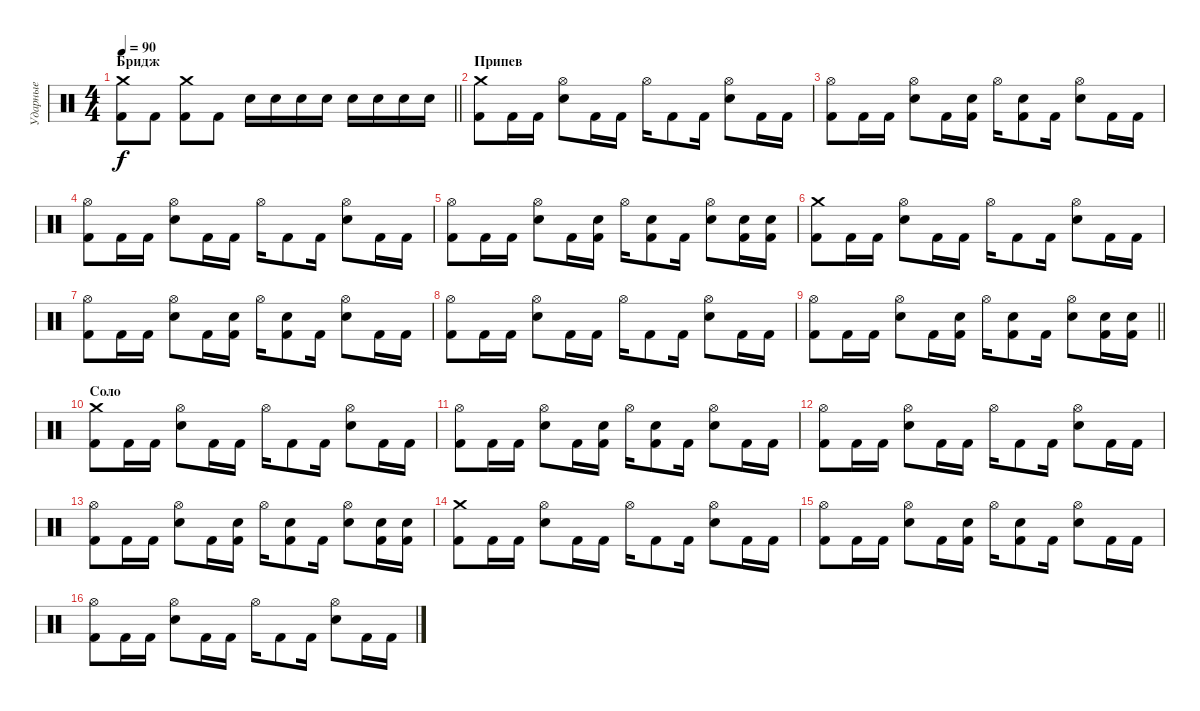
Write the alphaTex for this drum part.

\track ("Ударные" "Ударные") {instrument percussion}
\staff {score}
\articulation defaults
\ts (4 4)
\section ("" "Бридж")
\tempo 90
\clef neutral
\barLineRight lightlight
\ks c
("Kick (hit) 2" "Crash medium (hit)").8{dy f} "Kick (hit) 2".8 ("Kick (hit) 2" "Crash medium (hit)").8 "Kick (hit) 2".8 "Electric Snare (hit)".16 "Electric Snare (hit)".16 "Electric Snare (hit)".16 "Electric Snare (hit)".16 "Electric Snare (hit)".16 "Electric Snare (hit)".16 "Electric Snare (hit)".16 "Electric Snare (hit)".16 |
\section ("" "Припев")
("Kick (hit) 2" "Crash medium (hit)").8 "Kick (hit) 2".16 "Kick (hit) 2".16 ("Electric Snare (hit)" "Hi-Hat (open)").8 "Kick (hit) 2".16 "Kick (hit) 2".16 "Hi-Hat (open)".16 "Kick (hit) 2".8 "Kick (hit) 2".16 ("Electric Snare (hit)" "Hi-Hat (open)").8 "Kick (hit) 2".16 "Kick (hit) 2".16 |
("Kick (hit) 2" "Hi-Hat (open)").8 "Kick (hit) 2".16 "Kick (hit) 2".16 ("Electric Snare (hit)" "Hi-Hat (open)").8 "Kick (hit) 2".16 ("Kick (hit) 2" "Electric Snare (hit)").16 "Hi-Hat (open)".16 ("Kick (hit) 2" "Electric Snare (hit)").8 "Kick (hit) 2".16 ("Electric Snare (hit)" "Hi-Hat (open)").8 "Kick (hit) 2".16 "Kick (hit) 2".16 |
("Kick (hit) 2" "Hi-Hat (open)").8 "Kick (hit) 2".16 "Kick (hit) 2".16 ("Electric Snare (hit)" "Hi-Hat (open)").8 "Kick (hit) 2".16 "Kick (hit) 2".16 "Hi-Hat (open)".16 "Kick (hit) 2".8 "Kick (hit) 2".16 ("Electric Snare (hit)" "Hi-Hat (open)").8 "Kick (hit) 2".16 "Kick (hit) 2".16 |
("Kick (hit) 2" "Hi-Hat (open)").8 "Kick (hit) 2".16 "Kick (hit) 2".16 ("Electric Snare (hit)" "Hi-Hat (open)").8 "Kick (hit) 2".16 ("Kick (hit) 2" "Electric Snare (hit)").16 "Hi-Hat (open)".16 ("Kick (hit) 2" "Electric Snare (hit)").8 "Kick (hit) 2".16 ("Electric Snare (hit)" "Hi-Hat (open)").8 ("Kick (hit) 2" "Electric Snare (hit)").16 ("Kick (hit) 2" "Electric Snare (hit)").16 |
("Kick (hit) 2" "Crash medium (hit)").8 "Kick (hit) 2".16 "Kick (hit) 2".16 ("Electric Snare (hit)" "Hi-Hat (open)").8 "Kick (hit) 2".16 "Kick (hit) 2".16 "Hi-Hat (open)".16 "Kick (hit) 2".8 "Kick (hit) 2".16 ("Electric Snare (hit)" "Hi-Hat (open)").8 "Kick (hit) 2".16 "Kick (hit) 2".16 |
("Kick (hit) 2" "Hi-Hat (open)").8 "Kick (hit) 2".16 "Kick (hit) 2".16 ("Electric Snare (hit)" "Hi-Hat (open)").8 "Kick (hit) 2".16 ("Kick (hit) 2" "Electric Snare (hit)").16 "Hi-Hat (open)".16 ("Kick (hit) 2" "Electric Snare (hit)").8 "Kick (hit) 2".16 ("Electric Snare (hit)" "Hi-Hat (open)").8 "Kick (hit) 2".16 "Kick (hit) 2".16 |
("Kick (hit) 2" "Hi-Hat (open)").8 "Kick (hit) 2".16 "Kick (hit) 2".16 ("Electric Snare (hit)" "Hi-Hat (open)").8 "Kick (hit) 2".16 "Kick (hit) 2".16 "Hi-Hat (open)".16 "Kick (hit) 2".8 "Kick (hit) 2".16 ("Electric Snare (hit)" "Hi-Hat (open)").8 "Kick (hit) 2".16 "Kick (hit) 2".16 |
\barLineRight lightlight
("Kick (hit) 2" "Hi-Hat (open)").8 "Kick (hit) 2".16 "Kick (hit) 2".16 ("Electric Snare (hit)" "Hi-Hat (open)").8 "Kick (hit) 2".16 ("Kick (hit) 2" "Electric Snare (hit)").16 "Hi-Hat (open)".16 ("Kick (hit) 2" "Electric Snare (hit)").8 "Kick (hit) 2".16 ("Electric Snare (hit)" "Hi-Hat (open)").8 ("Kick (hit) 2" "Electric Snare (hit)").16 ("Kick (hit) 2" "Electric Snare (hit)").16 |
\section ("" "Соло")
("Kick (hit) 2" "Crash medium (hit)").8 "Kick (hit) 2".16 "Kick (hit) 2".16 ("Electric Snare (hit)" "Hi-Hat (open)").8 "Kick (hit) 2".16 "Kick (hit) 2".16 "Hi-Hat (open)".16 "Kick (hit) 2".8 "Kick (hit) 2".16 ("Electric Snare (hit)" "Hi-Hat (open)").8 "Kick (hit) 2".16 "Kick (hit) 2".16 |
("Kick (hit) 2" "Hi-Hat (open)").8 "Kick (hit) 2".16 "Kick (hit) 2".16 ("Electric Snare (hit)" "Hi-Hat (open)").8 "Kick (hit) 2".16 ("Kick (hit) 2" "Electric Snare (hit)").16 "Hi-Hat (open)".16 ("Kick (hit) 2" "Electric Snare (hit)").8 "Kick (hit) 2".16 ("Electric Snare (hit)" "Hi-Hat (open)").8 "Kick (hit) 2".16 "Kick (hit) 2".16 |
("Kick (hit) 2" "Hi-Hat (open)").8 "Kick (hit) 2".16 "Kick (hit) 2".16 ("Electric Snare (hit)" "Hi-Hat (open)").8 "Kick (hit) 2".16 "Kick (hit) 2".16 "Hi-Hat (open)".16 "Kick (hit) 2".8 "Kick (hit) 2".16 ("Electric Snare (hit)" "Hi-Hat (open)").8 "Kick (hit) 2".16 "Kick (hit) 2".16 |
("Kick (hit) 2" "Hi-Hat (open)").8 "Kick (hit) 2".16 "Kick (hit) 2".16 ("Electric Snare (hit)" "Hi-Hat (open)").8 "Kick (hit) 2".16 ("Kick (hit) 2" "Electric Snare (hit)").16 "Hi-Hat (open)".16 ("Kick (hit) 2" "Electric Snare (hit)").8 "Kick (hit) 2".16 ("Electric Snare (hit)" "Hi-Hat (open)").8 ("Kick (hit) 2" "Electric Snare (hit)").16 ("Kick (hit) 2" "Electric Snare (hit)").16 |
("Kick (hit) 2" "Crash medium (hit)").8 "Kick (hit) 2".16 "Kick (hit) 2".16 ("Electric Snare (hit)" "Hi-Hat (open)").8 "Kick (hit) 2".16 "Kick (hit) 2".16 "Hi-Hat (open)".16 "Kick (hit) 2".8 "Kick (hit) 2".16 ("Electric Snare (hit)" "Hi-Hat (open)").8 "Kick (hit) 2".16 "Kick (hit) 2".16 |
("Kick (hit) 2" "Hi-Hat (open)").8 "Kick (hit) 2".16 "Kick (hit) 2".16 ("Electric Snare (hit)" "Hi-Hat (open)").8 "Kick (hit) 2".16 ("Kick (hit) 2" "Electric Snare (hit)").16 "Hi-Hat (open)".16 ("Kick (hit) 2" "Electric Snare (hit)").8 "Kick (hit) 2".16 ("Electric Snare (hit)" "Hi-Hat (open)").8 "Kick (hit) 2".16 "Kick (hit) 2".16 |
("Kick (hit) 2" "Hi-Hat (open)").8 "Kick (hit) 2".16 "Kick (hit) 2".16 ("Electric Snare (hit)" "Hi-Hat (open)").8 "Kick (hit) 2".16 "Kick (hit) 2".16 "Hi-Hat (open)".16 "Kick (hit) 2".8 "Kick (hit) 2".16 ("Electric Snare (hit)" "Hi-Hat (open)").8 "Kick (hit) 2".16 "Kick (hit) 2".16
